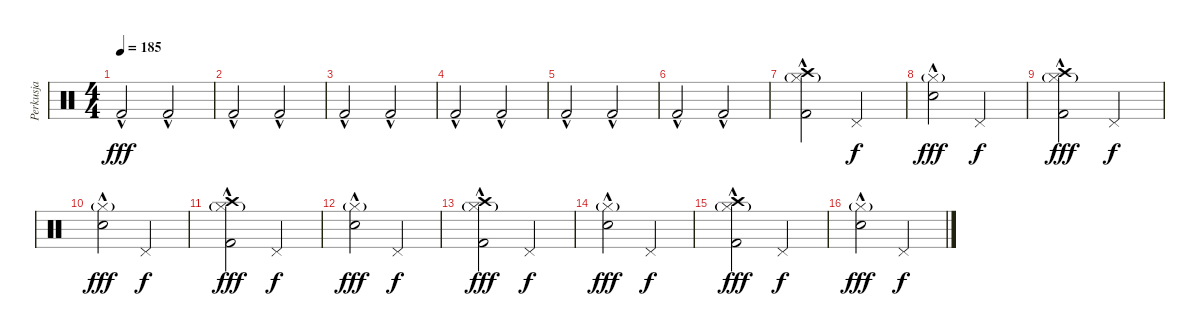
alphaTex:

\track ("Perkusja" "Perkusja") {instrument percussion}
\staff {score}
\articulation defaults
\ts (4 4)
\tempo 185
\clef neutral
\ks c "Kick (hit) 2"{hac}.2{dy fff} "Kick (hit) 2"{hac}.2
|
"Kick (hit) 2"{hac}.2 "Kick (hit) 2"{hac}.2 |
"Kick (hit) 2"{hac}.2 "Kick (hit) 2"{hac}.2 |
"Kick (hit) 2"{hac}.2 "Kick (hit) 2"{hac}.2 |
"Kick (hit) 2"{hac}.2 "Kick (hit) 2"{hac}.2 |
"Kick (hit) 2"{hac}.2 "Kick (hit) 2"{hac}.2 |
("Crash high (hit)" "Hi-Hat (closed)"{g} "Kick (hit) 2"{hac}).2 "Pedal Hi-Hat (hit)".2{dy f} |
("Hi-Hat (closed)"{g} "Electric Snare (hit)"{hac}).2{dy fff} "Pedal Hi-Hat (hit)".2{dy f} |
("Crash high (hit)" "Hi-Hat (closed)"{g} "Kick (hit) 2"{hac}).2{dy fff} "Pedal Hi-Hat (hit)".2{dy f} |
("Hi-Hat (closed)"{g} "Electric Snare (hit)"{hac}).2{dy fff} "Pedal Hi-Hat (hit)".2{dy f} |
("Crash high (hit)" "Hi-Hat (closed)"{g} "Kick (hit) 2"{hac}).2{dy fff} "Pedal Hi-Hat (hit)".2{dy f} |
("Hi-Hat (closed)"{g} "Electric Snare (hit)"{hac}).2{dy fff} "Pedal Hi-Hat (hit)".2{dy f} |
("Crash high (hit)" "Hi-Hat (closed)"{g} "Kick (hit) 2"{hac}).2{dy fff} "Pedal Hi-Hat (hit)".2{dy f} |
("Hi-Hat (closed)"{g} "Electric Snare (hit)"{hac}).2{dy fff} "Pedal Hi-Hat (hit)".2{dy f} |
("Crash high (hit)" "Hi-Hat (closed)"{g} "Kick (hit) 2"{hac}).2{dy fff} "Pedal Hi-Hat (hit)".2{dy f} |
("Hi-Hat (closed)"{g} "Electric Snare (hit)"{hac}).2{dy fff} "Pedal Hi-Hat (hit)".2{dy f}
